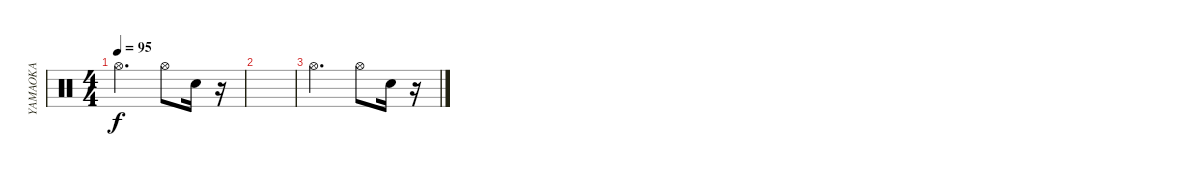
\track ("YAMAOKA" "YAMAOKA") {instrument percussion}
\staff {score}
\articulation defaults
\ts (4 4)
\tempo 95
\clef neutral
\ks c "Hi-Hat (open)".2{d dy f} "Hi-Hat (open)".8 "Snare (hit)"{x}.16
r.16 |
|
"Hi-Hat (open)".2{d} "Hi-Hat (open)".8 "Snare (hit)"{x}.16 r.16
